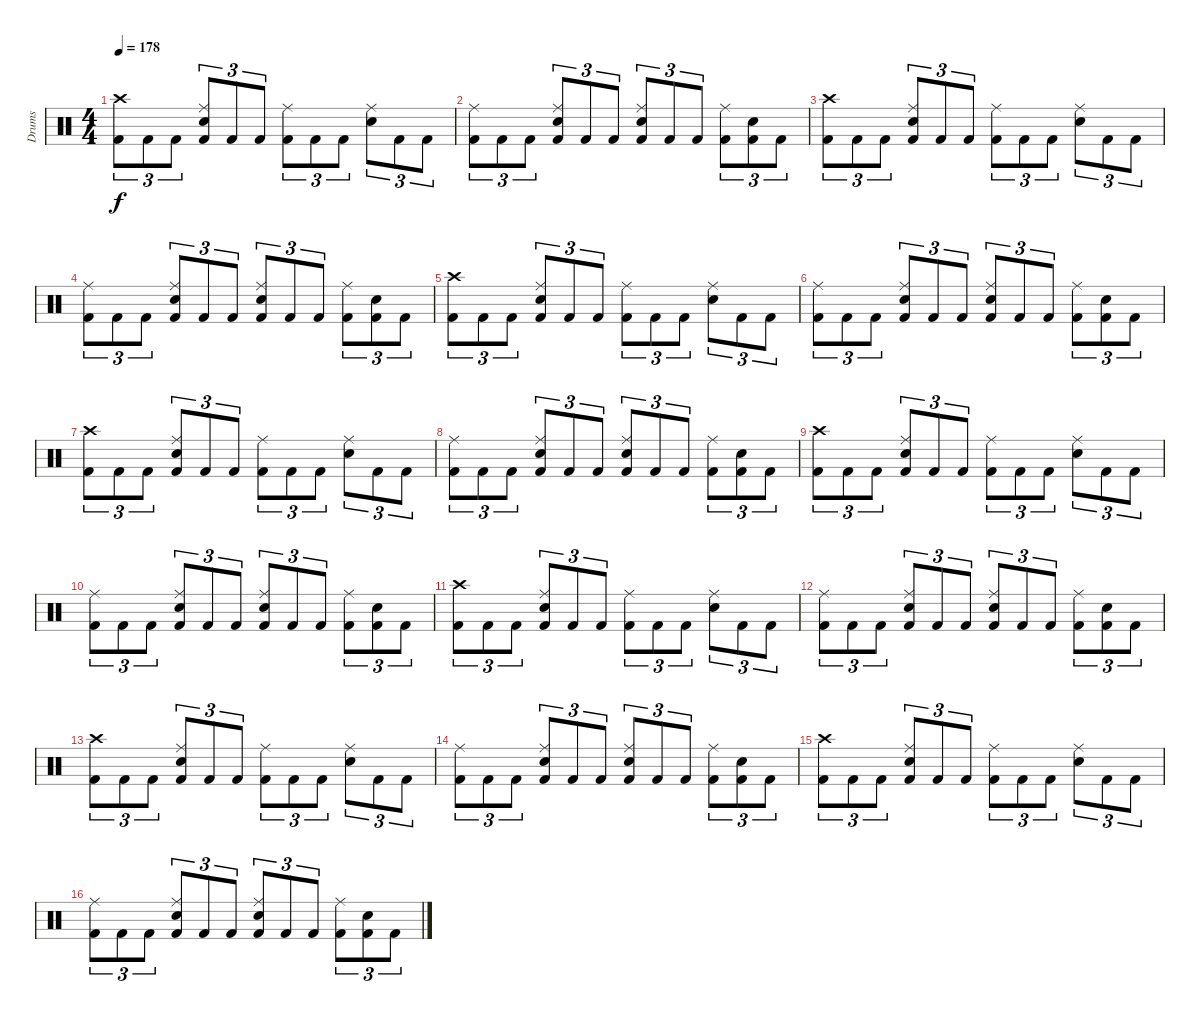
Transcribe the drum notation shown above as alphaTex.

\track ("Drums" "Drums") {instrument percussion}
\staff {score}
\articulation defaults
\ts (4 4)
\tempo 178
\clef neutral
\ks c
("Crash high (hit)" "Kick (hit) 2").8{tu (3 2) dy f} "Kick (hit) 2".8{tu (3 2)} "Kick (hit) 2".8{tu (3 2)} ("Ride (middle)" "Snare (hit) 2" "Kick (hit) 2").8{tu (3 2)} "Kick (hit) 2".8{tu (3 2)} "Kick (hit) 2".8{tu (3 2)} ("Ride (middle)" "Kick (hit) 2").8{tu (3 2)} "Kick (hit) 2".8{tu (3 2)} "Kick (hit) 2".8{tu (3 2)} ("Ride (middle)" "Snare (hit) 2").8{tu (3 2)} "Kick (hit) 2".8{tu (3 2)} "Kick (hit) 2".8{tu (3 2)} |
("Ride (middle)" "Kick (hit) 2").8{tu (3 2)} "Kick (hit) 2".8{tu (3 2)} "Kick (hit) 2".8{tu (3 2)} ("Ride (middle)" "Snare (hit) 2" "Kick (hit) 2").8{tu (3 2)} "Kick (hit) 2".8{tu (3 2)} "Kick (hit) 2".8{tu (3 2)} ("Ride (middle)" "Snare (hit) 2" "Kick (hit) 2").8{tu (3 2)} "Kick (hit) 2".8{tu (3 2)} "Kick (hit) 2".8{tu (3 2)} ("Ride (middle)" "Kick (hit) 2").8{tu (3 2)} ("Snare (hit) 2" "Kick (hit) 2").8{tu (3 2)} "Kick (hit) 2".8{tu (3 2)} |
("Crash high (hit)" "Kick (hit) 2").8{tu (3 2)} "Kick (hit) 2".8{tu (3 2)} "Kick (hit) 2".8{tu (3 2)} ("Ride (middle)" "Snare (hit) 2" "Kick (hit) 2").8{tu (3 2)} "Kick (hit) 2".8{tu (3 2)} "Kick (hit) 2".8{tu (3 2)} ("Ride (middle)" "Kick (hit) 2").8{tu (3 2)} "Kick (hit) 2".8{tu (3 2)} "Kick (hit) 2".8{tu (3 2)} ("Ride (middle)" "Snare (hit) 2").8{tu (3 2)} "Kick (hit) 2".8{tu (3 2)} "Kick (hit) 2".8{tu (3 2)} |
("Ride (middle)" "Kick (hit) 2").8{tu (3 2)} "Kick (hit) 2".8{tu (3 2)} "Kick (hit) 2".8{tu (3 2)} ("Ride (middle)" "Snare (hit) 2" "Kick (hit) 2").8{tu (3 2)} "Kick (hit) 2".8{tu (3 2)} "Kick (hit) 2".8{tu (3 2)} ("Ride (middle)" "Snare (hit) 2" "Kick (hit) 2").8{tu (3 2)} "Kick (hit) 2".8{tu (3 2)} "Kick (hit) 2".8{tu (3 2)} ("Ride (middle)" "Kick (hit) 2").8{tu (3 2)} ("Snare (hit) 2" "Kick (hit) 2").8{tu (3 2)} "Kick (hit) 2".8{tu (3 2)} |
("Crash high (hit)" "Kick (hit) 2").8{tu (3 2)} "Kick (hit) 2".8{tu (3 2)} "Kick (hit) 2".8{tu (3 2)} ("Ride (middle)" "Snare (hit) 2" "Kick (hit) 2").8{tu (3 2)} "Kick (hit) 2".8{tu (3 2)} "Kick (hit) 2".8{tu (3 2)} ("Ride (middle)" "Kick (hit) 2").8{tu (3 2)} "Kick (hit) 2".8{tu (3 2)} "Kick (hit) 2".8{tu (3 2)} ("Ride (middle)" "Snare (hit) 2").8{tu (3 2)} "Kick (hit) 2".8{tu (3 2)} "Kick (hit) 2".8{tu (3 2)} |
("Ride (middle)" "Kick (hit) 2").8{tu (3 2)} "Kick (hit) 2".8{tu (3 2)} "Kick (hit) 2".8{tu (3 2)} ("Ride (middle)" "Snare (hit) 2" "Kick (hit) 2").8{tu (3 2)} "Kick (hit) 2".8{tu (3 2)} "Kick (hit) 2".8{tu (3 2)} ("Ride (middle)" "Snare (hit) 2" "Kick (hit) 2").8{tu (3 2)} "Kick (hit) 2".8{tu (3 2)} "Kick (hit) 2".8{tu (3 2)} ("Ride (middle)" "Kick (hit) 2").8{tu (3 2)} ("Snare (hit) 2" "Kick (hit) 2").8{tu (3 2)} "Kick (hit) 2".8{tu (3 2)} |
("Crash high (hit)" "Kick (hit) 2").8{tu (3 2)} "Kick (hit) 2".8{tu (3 2)} "Kick (hit) 2".8{tu (3 2)} ("Ride (middle)" "Snare (hit) 2" "Kick (hit) 2").8{tu (3 2)} "Kick (hit) 2".8{tu (3 2)} "Kick (hit) 2".8{tu (3 2)} ("Ride (middle)" "Kick (hit) 2").8{tu (3 2)} "Kick (hit) 2".8{tu (3 2)} "Kick (hit) 2".8{tu (3 2)} ("Ride (middle)" "Snare (hit) 2").8{tu (3 2)} "Kick (hit) 2".8{tu (3 2)} "Kick (hit) 2".8{tu (3 2)} |
("Ride (middle)" "Kick (hit) 2").8{tu (3 2)} "Kick (hit) 2".8{tu (3 2)} "Kick (hit) 2".8{tu (3 2)} ("Ride (middle)" "Snare (hit) 2" "Kick (hit) 2").8{tu (3 2)} "Kick (hit) 2".8{tu (3 2)} "Kick (hit) 2".8{tu (3 2)} ("Ride (middle)" "Snare (hit) 2" "Kick (hit) 2").8{tu (3 2)} "Kick (hit) 2".8{tu (3 2)} "Kick (hit) 2".8{tu (3 2)} ("Ride (middle)" "Kick (hit) 2").8{tu (3 2)} ("Snare (hit) 2" "Kick (hit) 2").8{tu (3 2)} "Kick (hit) 2".8{tu (3 2)} |
("Crash high (hit)" "Kick (hit) 2").8{tu (3 2)} "Kick (hit) 2".8{tu (3 2)} "Kick (hit) 2".8{tu (3 2)} ("Ride (middle)" "Snare (hit) 2" "Kick (hit) 2").8{tu (3 2)} "Kick (hit) 2".8{tu (3 2)} "Kick (hit) 2".8{tu (3 2)} ("Ride (middle)" "Kick (hit) 2").8{tu (3 2)} "Kick (hit) 2".8{tu (3 2)} "Kick (hit) 2".8{tu (3 2)} ("Ride (middle)" "Snare (hit) 2").8{tu (3 2)} "Kick (hit) 2".8{tu (3 2)} "Kick (hit) 2".8{tu (3 2)} |
("Ride (middle)" "Kick (hit) 2").8{tu (3 2)} "Kick (hit) 2".8{tu (3 2)} "Kick (hit) 2".8{tu (3 2)} ("Ride (middle)" "Snare (hit) 2" "Kick (hit) 2").8{tu (3 2)} "Kick (hit) 2".8{tu (3 2)} "Kick (hit) 2".8{tu (3 2)} ("Ride (middle)" "Snare (hit) 2" "Kick (hit) 2").8{tu (3 2)} "Kick (hit) 2".8{tu (3 2)} "Kick (hit) 2".8{tu (3 2)} ("Ride (middle)" "Kick (hit) 2").8{tu (3 2)} ("Snare (hit) 2" "Kick (hit) 2").8{tu (3 2)} "Kick (hit) 2".8{tu (3 2)} |
("Crash high (hit)" "Kick (hit) 2").8{tu (3 2)} "Kick (hit) 2".8{tu (3 2)} "Kick (hit) 2".8{tu (3 2)} ("Ride (middle)" "Snare (hit) 2" "Kick (hit) 2").8{tu (3 2)} "Kick (hit) 2".8{tu (3 2)} "Kick (hit) 2".8{tu (3 2)} ("Ride (middle)" "Kick (hit) 2").8{tu (3 2)} "Kick (hit) 2".8{tu (3 2)} "Kick (hit) 2".8{tu (3 2)} ("Ride (middle)" "Snare (hit) 2").8{tu (3 2)} "Kick (hit) 2".8{tu (3 2)} "Kick (hit) 2".8{tu (3 2)} |
("Ride (middle)" "Kick (hit) 2").8{tu (3 2)} "Kick (hit) 2".8{tu (3 2)} "Kick (hit) 2".8{tu (3 2)} ("Ride (middle)" "Snare (hit) 2" "Kick (hit) 2").8{tu (3 2)} "Kick (hit) 2".8{tu (3 2)} "Kick (hit) 2".8{tu (3 2)} ("Ride (middle)" "Snare (hit) 2" "Kick (hit) 2").8{tu (3 2)} "Kick (hit) 2".8{tu (3 2)} "Kick (hit) 2".8{tu (3 2)} ("Ride (middle)" "Kick (hit) 2").8{tu (3 2)} ("Snare (hit) 2" "Kick (hit) 2").8{tu (3 2)} "Kick (hit) 2".8{tu (3 2)} |
("Crash high (hit)" "Kick (hit) 2").8{tu (3 2)} "Kick (hit) 2".8{tu (3 2)} "Kick (hit) 2".8{tu (3 2)} ("Ride (middle)" "Snare (hit) 2" "Kick (hit) 2").8{tu (3 2)} "Kick (hit) 2".8{tu (3 2)} "Kick (hit) 2".8{tu (3 2)} ("Ride (middle)" "Kick (hit) 2").8{tu (3 2)} "Kick (hit) 2".8{tu (3 2)} "Kick (hit) 2".8{tu (3 2)} ("Ride (middle)" "Snare (hit) 2").8{tu (3 2)} "Kick (hit) 2".8{tu (3 2)} "Kick (hit) 2".8{tu (3 2)} |
("Ride (middle)" "Kick (hit) 2").8{tu (3 2)} "Kick (hit) 2".8{tu (3 2)} "Kick (hit) 2".8{tu (3 2)} ("Ride (middle)" "Snare (hit) 2" "Kick (hit) 2").8{tu (3 2)} "Kick (hit) 2".8{tu (3 2)} "Kick (hit) 2".8{tu (3 2)} ("Ride (middle)" "Snare (hit) 2" "Kick (hit) 2").8{tu (3 2)} "Kick (hit) 2".8{tu (3 2)} "Kick (hit) 2".8{tu (3 2)} ("Ride (middle)" "Kick (hit) 2").8{tu (3 2)} ("Snare (hit) 2" "Kick (hit) 2").8{tu (3 2)} "Kick (hit) 2".8{tu (3 2)} |
("Crash high (hit)" "Kick (hit) 2").8{tu (3 2)} "Kick (hit) 2".8{tu (3 2)} "Kick (hit) 2".8{tu (3 2)} ("Ride (middle)" "Snare (hit) 2" "Kick (hit) 2").8{tu (3 2)} "Kick (hit) 2".8{tu (3 2)} "Kick (hit) 2".8{tu (3 2)} ("Ride (middle)" "Kick (hit) 2").8{tu (3 2)} "Kick (hit) 2".8{tu (3 2)} "Kick (hit) 2".8{tu (3 2)} ("Ride (middle)" "Snare (hit) 2").8{tu (3 2)} "Kick (hit) 2".8{tu (3 2)} "Kick (hit) 2".8{tu (3 2)} |
("Ride (middle)" "Kick (hit) 2").8{tu (3 2)} "Kick (hit) 2".8{tu (3 2)} "Kick (hit) 2".8{tu (3 2)} ("Ride (middle)" "Snare (hit) 2" "Kick (hit) 2").8{tu (3 2)} "Kick (hit) 2".8{tu (3 2)} "Kick (hit) 2".8{tu (3 2)} ("Ride (middle)" "Snare (hit) 2" "Kick (hit) 2").8{tu (3 2)} "Kick (hit) 2".8{tu (3 2)} "Kick (hit) 2".8{tu (3 2)} ("Ride (middle)" "Kick (hit) 2").8{tu (3 2)} ("Snare (hit) 2" "Kick (hit) 2").8{tu (3 2)} "Kick (hit) 2".8{tu (3 2)}
